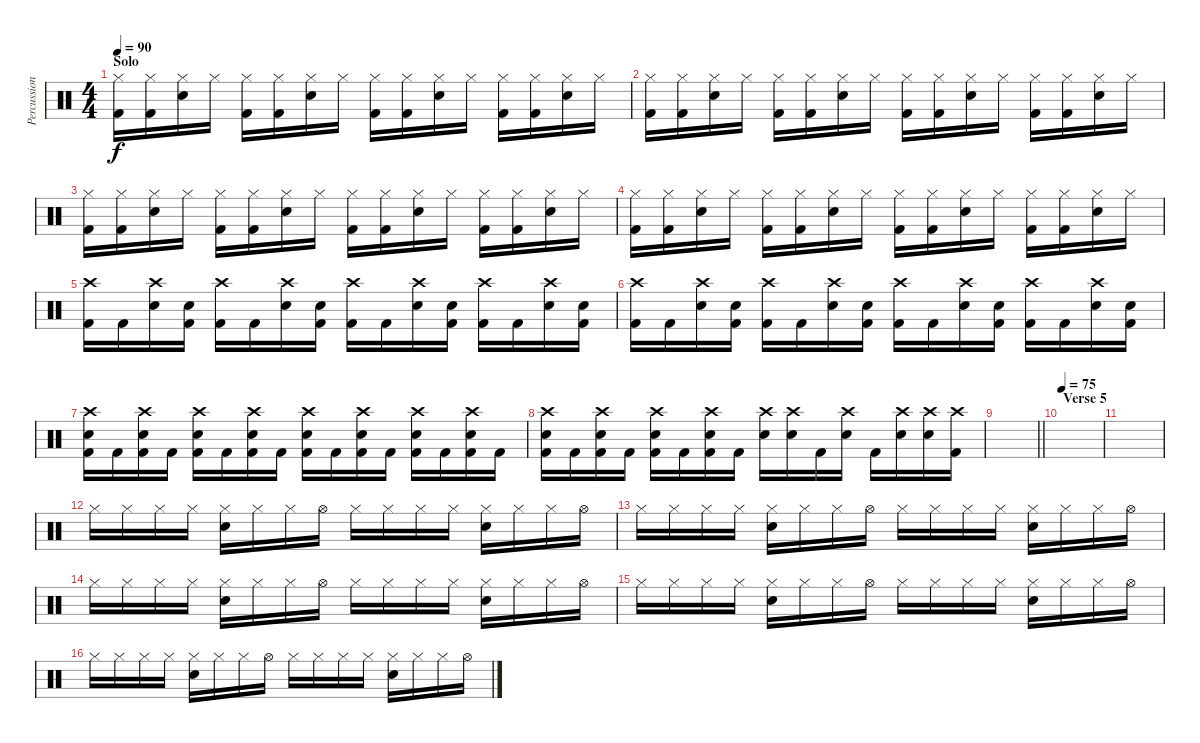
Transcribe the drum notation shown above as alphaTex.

\track ("Percussion" "Percussion") {instrument percussion}
\staff {score}
\articulation defaults
\ts (4 4)
\section ("" "Solo")
\tempo 90
\clef neutral
\ks c
("Hi-Hat (closed)" "Kick (hit) 2").16{dy f} ("Hi-Hat (closed)" "Kick (hit) 2").16 ("Hi-Hat (closed)" "Snare (hit) 2").16 "Hi-Hat (closed)".16 ("Hi-Hat (closed)" "Kick (hit) 2").16 ("Hi-Hat (closed)" "Kick (hit) 2").16 ("Hi-Hat (closed)" "Snare (hit) 2").16 "Hi-Hat (closed)".16 ("Hi-Hat (closed)" "Kick (hit) 2").16 ("Hi-Hat (closed)" "Kick (hit) 2").16 ("Hi-Hat (closed)" "Snare (hit) 2").16 "Hi-Hat (closed)".16 ("Hi-Hat (closed)" "Kick (hit) 2").16 ("Hi-Hat (closed)" "Kick (hit) 2").16 ("Hi-Hat (closed)" "Snare (hit) 2").16 "Hi-Hat (closed)".16 |
("Hi-Hat (closed)" "Kick (hit) 2").16 ("Hi-Hat (closed)" "Kick (hit) 2").16 ("Hi-Hat (closed)" "Snare (hit) 2").16 "Hi-Hat (closed)".16 ("Hi-Hat (closed)" "Kick (hit) 2").16 ("Hi-Hat (closed)" "Kick (hit) 2").16 ("Hi-Hat (closed)" "Snare (hit) 2").16 "Hi-Hat (closed)".16 ("Hi-Hat (closed)" "Kick (hit) 2").16 ("Hi-Hat (closed)" "Kick (hit) 2").16 ("Hi-Hat (closed)" "Snare (hit) 2").16 "Hi-Hat (closed)".16 ("Hi-Hat (closed)" "Kick (hit) 2").16 ("Hi-Hat (closed)" "Kick (hit) 2").16 ("Hi-Hat (closed)" "Snare (hit) 2").16 "Hi-Hat (closed)".16 |
("Hi-Hat (closed)" "Kick (hit) 2").16 ("Hi-Hat (closed)" "Kick (hit) 2").16 ("Hi-Hat (closed)" "Snare (hit) 2").16 "Hi-Hat (closed)".16 ("Hi-Hat (closed)" "Kick (hit) 2").16 ("Hi-Hat (closed)" "Kick (hit) 2").16 ("Hi-Hat (closed)" "Snare (hit) 2").16 "Hi-Hat (closed)".16 ("Hi-Hat (closed)" "Kick (hit) 2").16 ("Hi-Hat (closed)" "Kick (hit) 2").16 ("Hi-Hat (closed)" "Snare (hit) 2").16 "Hi-Hat (closed)".16 ("Hi-Hat (closed)" "Kick (hit) 2").16 ("Hi-Hat (closed)" "Kick (hit) 2").16 ("Hi-Hat (closed)" "Snare (hit) 2").16 "Hi-Hat (closed)".16 |
("Hi-Hat (closed)" "Kick (hit) 2").16 ("Hi-Hat (closed)" "Kick (hit) 2").16 ("Hi-Hat (closed)" "Snare (hit) 2").16 "Hi-Hat (closed)".16 ("Hi-Hat (closed)" "Kick (hit) 2").16 ("Hi-Hat (closed)" "Kick (hit) 2").16 ("Hi-Hat (closed)" "Snare (hit) 2").16 "Hi-Hat (closed)".16 ("Hi-Hat (closed)" "Kick (hit) 2").16 ("Hi-Hat (closed)" "Kick (hit) 2").16 ("Hi-Hat (closed)" "Snare (hit) 2").16 "Hi-Hat (closed)".16 ("Hi-Hat (closed)" "Kick (hit) 2").16 ("Hi-Hat (closed)" "Kick (hit) 2").16 ("Hi-Hat (closed)" "Snare (hit) 2").16 "Hi-Hat (closed)".16 |
("Crash high (hit)" "Kick (hit) 2").16 "Kick (hit) 2".16 ("Crash high (hit)" "Snare (hit) 2").16 ("Snare (hit) 2" "Kick (hit) 2").16 ("Crash high (hit)" "Kick (hit) 2").16 "Kick (hit) 2".16 ("Crash high (hit)" "Snare (hit) 2").16 ("Snare (hit) 2" "Kick (hit) 2").16 ("Crash high (hit)" "Kick (hit) 2").16 "Kick (hit) 2".16 ("Crash high (hit)" "Snare (hit) 2").16 ("Snare (hit) 2" "Kick (hit) 2").16 ("Crash high (hit)" "Kick (hit) 2").16 "Kick (hit) 2".16 ("Crash high (hit)" "Snare (hit) 2").16 ("Snare (hit) 2" "Kick (hit) 2").16 |
("Crash high (hit)" "Kick (hit) 2").16 "Kick (hit) 2".16 ("Crash high (hit)" "Snare (hit) 2").16 ("Snare (hit) 2" "Kick (hit) 2").16 ("Crash high (hit)" "Kick (hit) 2").16 "Kick (hit) 2".16 ("Crash high (hit)" "Snare (hit) 2").16 ("Snare (hit) 2" "Kick (hit) 2").16 ("Crash high (hit)" "Kick (hit) 2").16 "Kick (hit) 2".16 ("Crash high (hit)" "Snare (hit) 2").16 ("Snare (hit) 2" "Kick (hit) 2").16 ("Crash high (hit)" "Kick (hit) 2").16 "Kick (hit) 2".16 ("Crash high (hit)" "Snare (hit) 2").16 ("Snare (hit) 2" "Kick (hit) 2").16 |
("Crash high (hit)" "Snare (hit) 2" "Kick (hit) 2").16 "Kick (hit) 2".16 ("Crash high (hit)" "Snare (hit) 2" "Kick (hit) 2").16 "Kick (hit) 2".16 ("Crash high (hit)" "Snare (hit) 2" "Kick (hit) 2").16 "Kick (hit) 2".16 ("Crash high (hit)" "Snare (hit) 2" "Kick (hit) 2").16 "Kick (hit) 2".16 ("Crash high (hit)" "Snare (hit) 2" "Kick (hit) 2").16 "Kick (hit) 2".16 ("Crash high (hit)" "Snare (hit) 2" "Kick (hit) 2").16 "Kick (hit) 2".16 ("Crash high (hit)" "Snare (hit) 2" "Kick (hit) 2").16 "Kick (hit) 2".16 ("Crash high (hit)" "Snare (hit) 2" "Kick (hit) 2").16 "Kick (hit) 2".16 |
("Crash high (hit)" "Snare (hit) 2" "Kick (hit) 2").16 "Kick (hit) 2".16 ("Crash high (hit)" "Snare (hit) 2" "Kick (hit) 2").16 "Kick (hit) 2".16 ("Crash high (hit)" "Snare (hit) 2" "Kick (hit) 2").16 "Kick (hit) 2".16 ("Crash high (hit)" "Snare (hit) 2" "Kick (hit) 2").16 "Kick (hit) 2".16 ("Crash high (hit)" "Snare (hit) 2").16 ("Crash high (hit)" "Snare (hit) 2").16 "Kick (hit) 2".16 ("Crash high (hit)" "Snare (hit) 2").16 "Kick (hit) 2".16 ("Crash high (hit)" "Snare (hit) 2").16 ("Crash high (hit)" "Snare (hit) 2").16 ("Crash high (hit)" "Kick (hit) 2").16 |
\barLineRight lightlight
|
\section ("" "Verse 5")
\tempo 75
|
|
"Hi-Hat (closed)".16 "Hi-Hat (closed)".16 "Hi-Hat (closed)".16 "Hi-Hat (closed)".16 ("Hi-Hat (closed)" "Snare (hit) 2").16 "Hi-Hat (closed)".16 "Hi-Hat (closed)".16 "Hi-Hat (open)".16 "Hi-Hat (closed)".16 "Hi-Hat (closed)".16 "Hi-Hat (closed)".16 "Hi-Hat (closed)".16 ("Hi-Hat (closed)" "Snare (hit) 2").16 "Hi-Hat (closed)".16 "Hi-Hat (closed)".16 "Hi-Hat (open)".16 |
"Hi-Hat (closed)".16 "Hi-Hat (closed)".16 "Hi-Hat (closed)".16 "Hi-Hat (closed)".16 ("Hi-Hat (closed)" "Snare (hit) 2").16 "Hi-Hat (closed)".16 "Hi-Hat (closed)".16 "Hi-Hat (open)".16 "Hi-Hat (closed)".16 "Hi-Hat (closed)".16 "Hi-Hat (closed)".16 "Hi-Hat (closed)".16 ("Hi-Hat (closed)" "Snare (hit) 2").16 "Hi-Hat (closed)".16 "Hi-Hat (closed)".16 "Hi-Hat (open)".16 |
"Hi-Hat (closed)".16 "Hi-Hat (closed)".16 "Hi-Hat (closed)".16 "Hi-Hat (closed)".16 ("Hi-Hat (closed)" "Snare (hit) 2").16 "Hi-Hat (closed)".16 "Hi-Hat (closed)".16 "Hi-Hat (open)".16 "Hi-Hat (closed)".16 "Hi-Hat (closed)".16 "Hi-Hat (closed)".16 "Hi-Hat (closed)".16 ("Hi-Hat (closed)" "Snare (hit) 2").16 "Hi-Hat (closed)".16 "Hi-Hat (closed)".16 "Hi-Hat (open)".16 |
"Hi-Hat (closed)".16 "Hi-Hat (closed)".16 "Hi-Hat (closed)".16 "Hi-Hat (closed)".16 ("Hi-Hat (closed)" "Snare (hit) 2").16 "Hi-Hat (closed)".16 "Hi-Hat (closed)".16 "Hi-Hat (open)".16 "Hi-Hat (closed)".16 "Hi-Hat (closed)".16 "Hi-Hat (closed)".16 "Hi-Hat (closed)".16 ("Hi-Hat (closed)" "Snare (hit) 2").16 "Hi-Hat (closed)".16 "Hi-Hat (closed)".16 "Hi-Hat (open)".16 |
"Hi-Hat (closed)".16 "Hi-Hat (closed)".16 "Hi-Hat (closed)".16 "Hi-Hat (closed)".16 ("Hi-Hat (closed)" "Snare (hit) 2").16 "Hi-Hat (closed)".16 "Hi-Hat (closed)".16 "Hi-Hat (open)".16 "Hi-Hat (closed)".16 "Hi-Hat (closed)".16 "Hi-Hat (closed)".16 "Hi-Hat (closed)".16 ("Hi-Hat (closed)" "Snare (hit) 2").16 "Hi-Hat (closed)".16 "Hi-Hat (closed)".16 "Hi-Hat (open)".16
